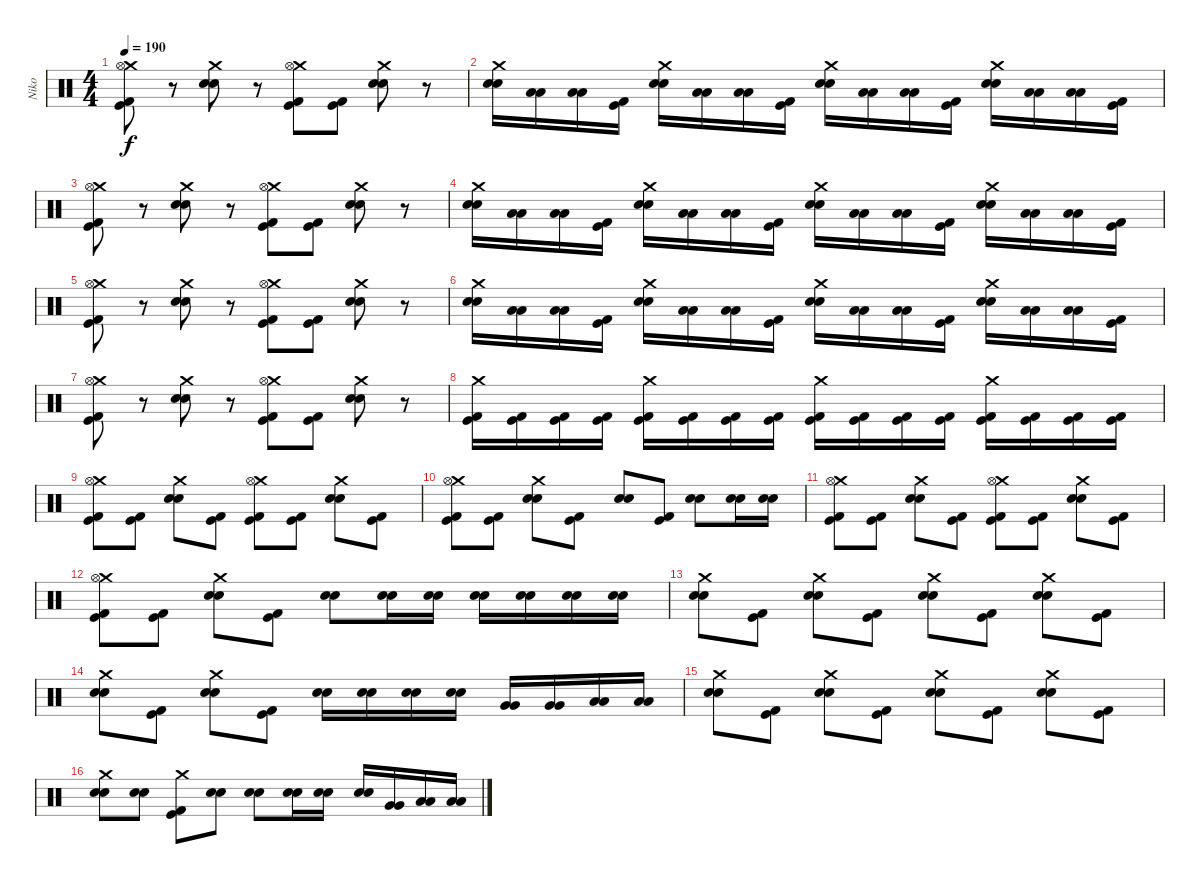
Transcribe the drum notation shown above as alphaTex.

\track ("Niko" "Niko") {instrument percussion}
\staff {score}
\articulation defaults
\ts (4 4)
\tempo 190
\clef neutral
\ks c
("Crash medium (hit)" "Hi-Hat (open)" "Kick (hit)" "Kick (hit) 2").8{dy f} r.8 ("Crash medium (hit)" "Electric Snare (hit)" "Electric Snare (hit)").8 r.8 ("Crash medium (hit)" "Hi-Hat (open)" "Kick (hit)" "Kick (hit) 2").8 ("Kick (hit) 2" "Kick (hit)").8 ("Crash medium (hit)" "Electric Snare (hit)" "Electric Snare (hit)").8 r.8 |
("Crash medium (hit)" "Electric Snare (hit)" "Electric Snare (hit)").16 ("Low Tom (hit)" "Low Tom (hit)").16 ("Low Floor Tom (hit)" "Low Floor Tom (hit)").16 ("Kick (hit) 2" "Kick (hit)").16 ("Crash medium (hit)" "Electric Snare (hit)" "Electric Snare (hit)").16 ("Low Tom (hit)" "Low Tom (hit)").16 ("Low Floor Tom (hit)" "Low Floor Tom (hit)").16 ("Kick (hit) 2" "Kick (hit)").16 ("Crash medium (hit)" "Electric Snare (hit)" "Electric Snare (hit)").16 ("Low Tom (hit)" "Low Tom (hit)").16 ("Low Floor Tom (hit)" "Low Floor Tom (hit)").16 ("Kick (hit) 2" "Kick (hit)").16 ("Crash medium (hit)" "Electric Snare (hit)" "Electric Snare (hit)").16 ("Low Tom (hit)" "Low Tom (hit)").16 ("Low Floor Tom (hit)" "Low Floor Tom (hit)").16 ("Kick (hit) 2" "Kick (hit)").16 |
("Crash medium (hit)" "Hi-Hat (open)" "Kick (hit)" "Kick (hit) 2").8 r.8 ("Crash medium (hit)" "Electric Snare (hit)" "Electric Snare (hit)").8 r.8 ("Crash medium (hit)" "Hi-Hat (open)" "Kick (hit)" "Kick (hit) 2").8 ("Kick (hit) 2" "Kick (hit)").8 ("Crash medium (hit)" "Electric Snare (hit)" "Electric Snare (hit)").8 r.8 |
("Crash medium (hit)" "Electric Snare (hit)" "Electric Snare (hit)").16 ("Low Tom (hit)" "Low Tom (hit)").16 ("Low Floor Tom (hit)" "Low Floor Tom (hit)").16 ("Kick (hit) 2" "Kick (hit)").16 ("Crash medium (hit)" "Electric Snare (hit)" "Electric Snare (hit)").16 ("Low Tom (hit)" "Low Tom (hit)").16 ("Low Floor Tom (hit)" "Low Floor Tom (hit)").16 ("Kick (hit) 2" "Kick (hit)").16 ("Crash medium (hit)" "Electric Snare (hit)" "Electric Snare (hit)").16 ("Low Tom (hit)" "Low Tom (hit)").16 ("Low Floor Tom (hit)" "Low Floor Tom (hit)").16 ("Kick (hit) 2" "Kick (hit)").16 ("Crash medium (hit)" "Electric Snare (hit)" "Electric Snare (hit)").16 ("Low Tom (hit)" "Low Tom (hit)").16 ("Low Floor Tom (hit)" "Low Floor Tom (hit)").16 ("Kick (hit) 2" "Kick (hit)").16 |
("Crash medium (hit)" "Hi-Hat (open)" "Kick (hit)" "Kick (hit) 2").8 r.8 ("Crash medium (hit)" "Electric Snare (hit)" "Electric Snare (hit)").8 r.8 ("Crash medium (hit)" "Hi-Hat (open)" "Kick (hit)" "Kick (hit) 2").8 ("Kick (hit) 2" "Kick (hit)").8 ("Crash medium (hit)" "Electric Snare (hit)" "Electric Snare (hit)").8 r.8 |
("Crash medium (hit)" "Electric Snare (hit)" "Electric Snare (hit)").16 ("Low Tom (hit)" "Low Tom (hit)").16 ("Low Floor Tom (hit)" "Low Floor Tom (hit)").16 ("Kick (hit) 2" "Kick (hit)").16 ("Crash medium (hit)" "Electric Snare (hit)" "Electric Snare (hit)").16 ("Low Tom (hit)" "Low Tom (hit)").16 ("Low Floor Tom (hit)" "Low Floor Tom (hit)").16 ("Kick (hit) 2" "Kick (hit)").16 ("Crash medium (hit)" "Electric Snare (hit)" "Electric Snare (hit)").16 ("Low Tom (hit)" "Low Tom (hit)").16 ("Low Floor Tom (hit)" "Low Floor Tom (hit)").16 ("Kick (hit) 2" "Kick (hit)").16 ("Crash medium (hit)" "Electric Snare (hit)" "Electric Snare (hit)").16 ("Low Tom (hit)" "Low Tom (hit)").16 ("Low Floor Tom (hit)" "Low Floor Tom (hit)").16 ("Kick (hit) 2" "Kick (hit)").16 |
("Crash medium (hit)" "Hi-Hat (open)" "Kick (hit)" "Kick (hit) 2").8 r.8 ("Crash medium (hit)" "Electric Snare (hit)" "Electric Snare (hit)").8 r.8 ("Crash medium (hit)" "Hi-Hat (open)" "Kick (hit)" "Kick (hit) 2").8 ("Kick (hit) 2" "Kick (hit)").8 ("Crash medium (hit)" "Electric Snare (hit)" "Electric Snare (hit)").8 r.8 |
("Crash medium (hit)" "Kick (hit) 2" "Kick (hit)").16 ("Kick (hit)" "Kick (hit) 2").16 ("Kick (hit) 2" "Kick (hit)").16 ("Kick (hit)" "Kick (hit) 2").16 ("Crash medium (hit)" "Kick (hit)" "Kick (hit) 2").16 ("Kick (hit)" "Kick (hit) 2").16 ("Kick (hit)" "Kick (hit) 2").16 ("Kick (hit)" "Kick (hit) 2").16 ("Crash medium (hit)" "Kick (hit)" "Kick (hit) 2").16 ("Kick (hit)" "Kick (hit) 2").16 ("Kick (hit)" "Kick (hit) 2").16 ("Kick (hit)" "Kick (hit) 2").16 ("Crash medium (hit)" "Kick (hit)" "Kick (hit) 2").16 ("Kick (hit)" "Kick (hit) 2").16 ("Kick (hit)" "Kick (hit) 2").16 ("Kick (hit)" "Kick (hit) 2").16 |
("Crash medium (hit)" "Hi-Hat (open)" "Kick (hit)" "Kick (hit) 2").8 ("Kick (hit) 2" "Kick (hit)").8 ("Crash medium (hit)" "Electric Snare (hit)" "Electric Snare (hit)").8 ("Kick (hit) 2" "Kick (hit)").8 ("Crash medium (hit)" "Hi-Hat (open)" "Kick (hit)" "Kick (hit) 2").8 ("Kick (hit) 2" "Kick (hit)").8 ("Crash medium (hit)" "Electric Snare (hit)" "Electric Snare (hit)").8 ("Kick (hit) 2" "Kick (hit)").8 |
("Crash medium (hit)" "Hi-Hat (open)" "Kick (hit)" "Kick (hit) 2").8 ("Kick (hit) 2" "Kick (hit)").8 ("Crash medium (hit)" "Electric Snare (hit)" "Electric Snare (hit)").8 ("Kick (hit) 2" "Kick (hit)").8 ("Electric Snare (hit)" "Electric Snare (hit)").8 ("Kick (hit) 2" "Kick (hit)").8 ("Electric Snare (hit)" "Electric Snare (hit)").8 ("Electric Snare (hit)" "Electric Snare (hit)").16 ("Electric Snare (hit)" "Electric Snare (hit)").16 |
("Crash medium (hit)" "Hi-Hat (open)" "Kick (hit)" "Kick (hit) 2").8 ("Kick (hit) 2" "Kick (hit)").8 ("Crash medium (hit)" "Electric Snare (hit)" "Electric Snare (hit)").8 ("Kick (hit) 2" "Kick (hit)").8 ("Crash medium (hit)" "Hi-Hat (open)" "Kick (hit)" "Kick (hit) 2").8 ("Kick (hit) 2" "Kick (hit)").8 ("Crash medium (hit)" "Electric Snare (hit)" "Electric Snare (hit)").8 ("Kick (hit) 2" "Kick (hit)").8 |
("Crash medium (hit)" "Hi-Hat (open)" "Kick (hit)" "Kick (hit) 2").8 ("Kick (hit) 2" "Kick (hit)").8 ("Crash medium (hit)" "Electric Snare (hit)" "Electric Snare (hit)").8 ("Kick (hit) 2" "Kick (hit)").8 ("Electric Snare (hit)" "Electric Snare (hit)").8 ("Electric Snare (hit)" "Electric Snare (hit)").16 ("Electric Snare (hit)" "Electric Snare (hit)").16 ("Electric Snare (hit)" "Electric Snare (hit)").16 ("Electric Snare (hit)" "Electric Snare (hit)").16 ("Electric Snare (hit)" "Electric Snare (hit)").16 ("Electric Snare (hit)" "Electric Snare (hit)").16 |
("Crash medium (hit)" "Electric Snare (hit)" "Electric Snare (hit)").8 ("Kick (hit) 2" "Kick (hit)").8 ("Crash medium (hit)" "Electric Snare (hit)" "Electric Snare (hit)").8 ("Kick (hit) 2" "Kick (hit)").8 ("Crash medium (hit)" "Electric Snare (hit)" "Electric Snare (hit)").8 ("Kick (hit) 2" "Kick (hit)").8 ("Crash medium (hit)" "Electric Snare (hit)" "Electric Snare (hit)").8 ("Kick (hit) 2" "Kick (hit)").8 |
("Crash medium (hit)" "Electric Snare (hit)" "Electric Snare (hit)").8 ("Kick (hit) 2" "Kick (hit)").8 ("Crash medium (hit)" "Electric Snare (hit)" "Electric Snare (hit)").8 ("Kick (hit) 2" "Kick (hit)").8 ("Electric Snare (hit)" "Electric Snare (hit)").16 ("Electric Snare (hit)" "Electric Snare (hit)").16 ("Electric Snare (hit)" "Electric Snare (hit)").16 ("Electric Snare (hit)" "Electric Snare (hit)").16 ("Very Low Tom (hit)" "Very Low Tom (hit)").16 ("Very Low Tom (hit)" "Very Low Tom (hit)").16 ("Low Floor Tom (hit)" "Low Floor Tom (hit)").16 ("Low Floor Tom (hit)" "Low Floor Tom (hit)").16 |
("Crash medium (hit)" "Electric Snare (hit)" "Electric Snare (hit)").8 ("Kick (hit) 2" "Kick (hit)").8 ("Crash medium (hit)" "Electric Snare (hit)" "Electric Snare (hit)").8 ("Kick (hit) 2" "Kick (hit)").8 ("Crash medium (hit)" "Electric Snare (hit)" "Electric Snare (hit)").8 ("Kick (hit) 2" "Kick (hit)").8 ("Crash medium (hit)" "Electric Snare (hit)" "Electric Snare (hit)").8 ("Kick (hit) 2" "Kick (hit)").8 |
("Crash medium (hit)" "Electric Snare (hit)" "Electric Snare (hit)").8 ("Electric Snare (hit)" "Electric Snare (hit)").8 ("Crash medium (hit)" "Kick (hit) 2" "Kick (hit)").8 ("Electric Snare (hit)" "Electric Snare (hit)").8 ("Electric Snare (hit)" "Electric Snare (hit)").8 ("Electric Snare (hit)" "Electric Snare (hit)").16 ("Electric Snare (hit)" "Electric Snare (hit)").16 ("Electric Snare (hit)" "Electric Snare (hit)").16 ("Very Low Tom (hit)" "Very Low Tom (hit)").16 ("Low Floor Tom (hit)" "Low Floor Tom (hit)").16 ("Low Floor Tom (hit)" "Low Floor Tom (hit)").16
